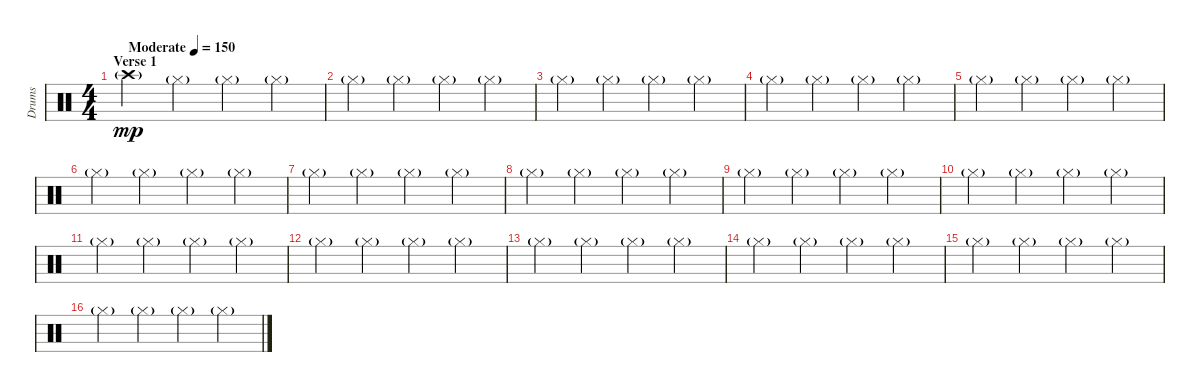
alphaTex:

\track ("Drums" "Drums") {instrument percussion}
\staff {score}
\articulation defaults
\ts (4 4)
\section ("" "Verse 1")
\tempo (150 "Moderate")
\clef neutral
\ks c "Crash high (hit)"{g}.4{dy mp volume 5} "Hi-Hat (closed)"{g}.4 "Hi-Hat (closed)"{g}.4 "Hi-Hat (closed)"{g}.4
|
"Hi-Hat (closed)"{g}.4 "Hi-Hat (closed)"{g}.4 "Hi-Hat (closed)"{g}.4 "Hi-Hat (closed)"{g}.4 |
"Hi-Hat (closed)"{g}.4 "Hi-Hat (closed)"{g}.4 "Hi-Hat (closed)"{g}.4 "Hi-Hat (closed)"{g}.4 |
"Hi-Hat (closed)"{g}.4 "Hi-Hat (closed)"{g}.4 "Hi-Hat (closed)"{g}.4 "Hi-Hat (closed)"{g}.4 |
"Hi-Hat (closed)"{g}.4 "Hi-Hat (closed)"{g}.4 "Hi-Hat (closed)"{g}.4 "Hi-Hat (closed)"{g}.4 |
"Hi-Hat (closed)"{g}.4 "Hi-Hat (closed)"{g}.4 "Hi-Hat (closed)"{g}.4 "Hi-Hat (closed)"{g}.4 |
"Hi-Hat (closed)"{g}.4 "Hi-Hat (closed)"{g}.4 "Hi-Hat (closed)"{g}.4 "Hi-Hat (closed)"{g}.4 |
"Hi-Hat (closed)"{g}.4 "Hi-Hat (closed)"{g}.4 "Hi-Hat (closed)"{g}.4 "Hi-Hat (closed)"{g}.4 |
"Hi-Hat (closed)"{g}.4 "Hi-Hat (closed)"{g}.4 "Hi-Hat (closed)"{g}.4 "Hi-Hat (closed)"{g}.4 |
"Hi-Hat (closed)"{g}.4 "Hi-Hat (closed)"{g}.4 "Hi-Hat (closed)"{g}.4 "Hi-Hat (closed)"{g}.4 |
"Hi-Hat (closed)"{g}.4 "Hi-Hat (closed)"{g}.4 "Hi-Hat (closed)"{g}.4 "Hi-Hat (closed)"{g}.4 |
"Hi-Hat (closed)"{g}.4 "Hi-Hat (closed)"{g}.4 "Hi-Hat (closed)"{g}.4 "Hi-Hat (closed)"{g}.4 |
"Hi-Hat (closed)"{g}.4 "Hi-Hat (closed)"{g}.4 "Hi-Hat (closed)"{g}.4 "Hi-Hat (closed)"{g}.4 |
"Hi-Hat (closed)"{g}.4 "Hi-Hat (closed)"{g}.4 "Hi-Hat (closed)"{g}.4 "Hi-Hat (closed)"{g}.4 |
"Hi-Hat (closed)"{g}.4 "Hi-Hat (closed)"{g}.4 "Hi-Hat (closed)"{g}.4 "Hi-Hat (closed)"{g}.4 |
"Hi-Hat (closed)"{g}.4 "Hi-Hat (closed)"{g}.4 "Hi-Hat (closed)"{g}.4 "Hi-Hat (closed)"{g}.4
